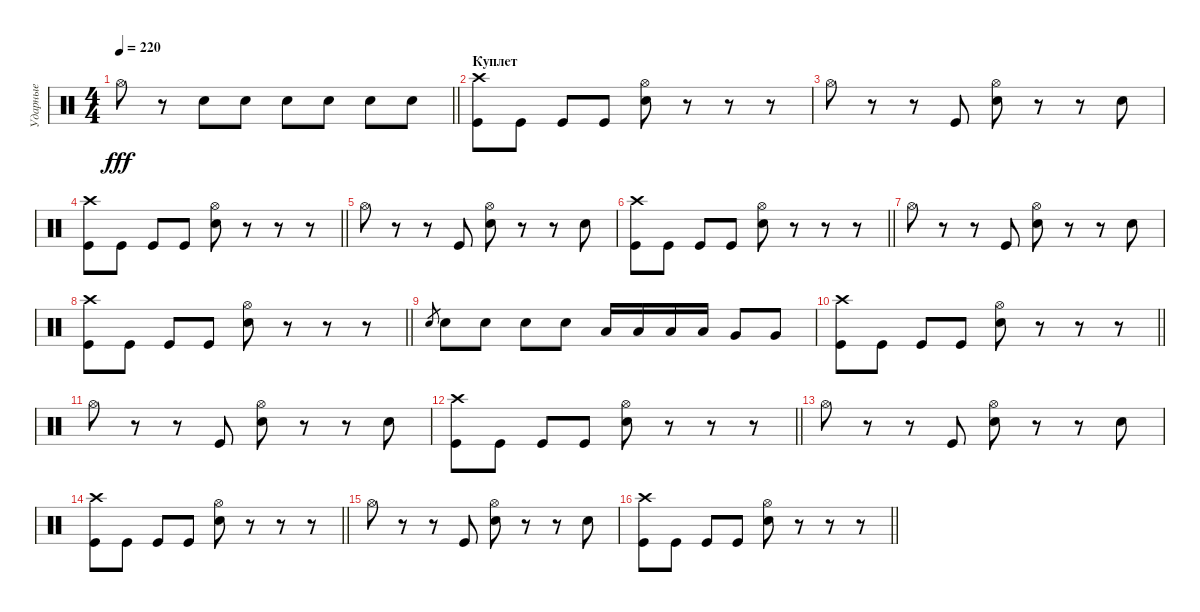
\track ("Ударные" "Ударные") {instrument percussion}
\staff {score}
\articulation defaults
\ts (4 4)
\tempo 220
\clef neutral
\barLineRight lightlight
\ks c "Hi-Hat (open)".8{dy fff}
r.8 "Snare (hit) 2".8 "Snare (hit) 2".8 "Snare (hit) 2".8 "Snare (hit) 2".8 "Snare (hit) 2".8 "Snare (hit) 2".8 |
\section ("" "Куплет")
("Crash high (hit)" "Kick (hit)").8 "Kick (hit)".8 "Kick (hit)".8 "Kick (hit)".8 ("Hi-Hat (open)" "Snare (hit) 2").8 r.8 r.8 r.8 |
"Hi-Hat (open)".8 r.8 r.8 "Kick (hit)".8 ("Hi-Hat (open)" "Snare (hit) 2").8 r.8 r.8 "Snare (hit) 2".8 |
\barLineRight lightlight
("Crash high (hit)" "Kick (hit)").8 "Kick (hit)".8 "Kick (hit)".8 "Kick (hit)".8 ("Hi-Hat (open)" "Snare (hit) 2").8 r.8 r.8 r.8 |
"Hi-Hat (open)".8 r.8 r.8 "Kick (hit)".8 ("Hi-Hat (open)" "Snare (hit) 2").8 r.8 r.8 "Snare (hit) 2".8 |
\barLineRight lightlight
("Crash high (hit)" "Kick (hit)").8 "Kick (hit)".8 "Kick (hit)".8 "Kick (hit)".8 ("Hi-Hat (open)" "Snare (hit) 2").8 r.8 r.8 r.8 |
"Hi-Hat (open)".8 r.8 r.8 "Kick (hit)".8 ("Hi-Hat (open)" "Snare (hit) 2").8 r.8 r.8 "Snare (hit) 2".8 |
\barLineRight lightlight
("Crash high (hit)" "Kick (hit)").8 "Kick (hit)".8 "Kick (hit)".8 "Kick (hit)".8 ("Hi-Hat (open)" "Snare (hit) 2").8 r.8 r.8 r.8 |
"Snare (hit) 2".8{gr} "Snare (hit) 2".8 "Snare (hit) 2".8 "Snare (hit) 2".8 "Snare (hit) 2".8 "Low Floor Tom (hit)".16 "Low Floor Tom (hit)".16 "Low Floor Tom (hit)".16 "Low Floor Tom (hit)".16 "Very Low Tom (hit)".8 "Very Low Tom (hit)".8 |
\barLineRight lightlight
("Crash high (hit)" "Kick (hit)").8 "Kick (hit)".8 "Kick (hit)".8 "Kick (hit)".8 ("Hi-Hat (open)" "Snare (hit) 2").8 r.8 r.8 r.8 |
"Hi-Hat (open)".8 r.8 r.8 "Kick (hit)".8 ("Hi-Hat (open)" "Snare (hit) 2").8 r.8 r.8 "Snare (hit) 2".8 |
\barLineRight lightlight
("Crash high (hit)" "Kick (hit)").8 "Kick (hit)".8 "Kick (hit)".8 "Kick (hit)".8 ("Hi-Hat (open)" "Snare (hit) 2").8 r.8 r.8 r.8 |
"Hi-Hat (open)".8 r.8 r.8 "Kick (hit)".8 ("Hi-Hat (open)" "Snare (hit) 2").8 r.8 r.8 "Snare (hit) 2".8 |
\barLineRight lightlight
("Crash high (hit)" "Kick (hit)").8 "Kick (hit)".8 "Kick (hit)".8 "Kick (hit)".8 ("Hi-Hat (open)" "Snare (hit) 2").8 r.8 r.8 r.8 |
"Hi-Hat (open)".8 r.8 r.8 "Kick (hit)".8 ("Hi-Hat (open)" "Snare (hit) 2").8 r.8 r.8 "Snare (hit) 2".8 |
\barLineRight lightlight
("Crash high (hit)" "Kick (hit)").8 "Kick (hit)".8 "Kick (hit)".8 "Kick (hit)".8 ("Hi-Hat (open)" "Snare (hit) 2").8 r.8 r.8 r.8
